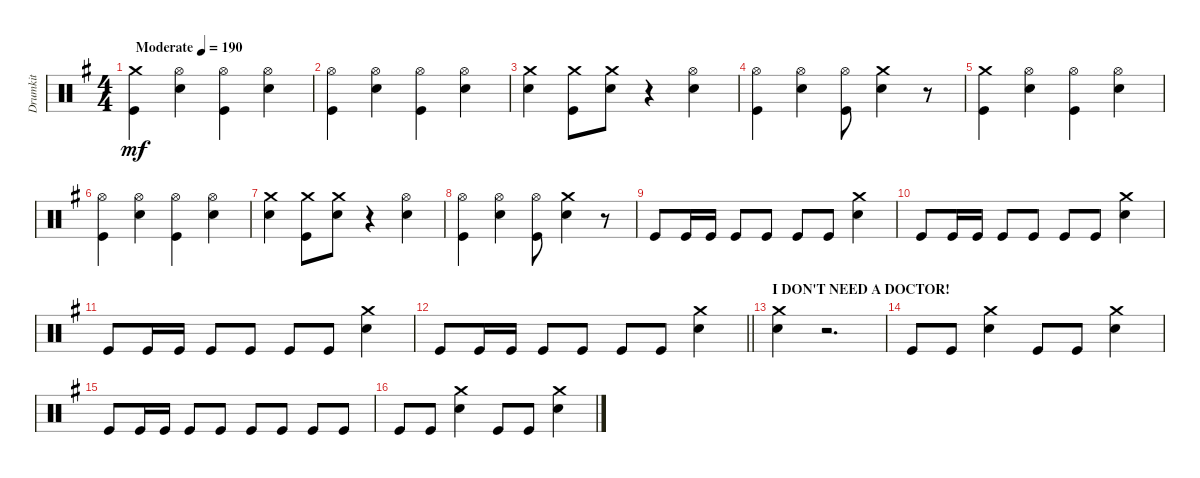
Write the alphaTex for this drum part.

\track ("Drumkit" "Drumkit") {instrument percussion}
\staff {score}
\articulation defaults
\ts (4 4)
\tempo (190 "Moderate")
\clef neutral
\ks eminor
("Kick (hit)" "Crash medium (hit)").4{dy mf} ("Snare (hit) 2" "Hi-Hat (open)").4 ("Kick (hit)" "Hi-Hat (open)").4 ("Snare (hit) 2" "Hi-Hat (open)").4 |
("Kick (hit)" "Hi-Hat (open)").4 ("Snare (hit) 2" "Hi-Hat (open)").4 ("Kick (hit)" "Hi-Hat (open)").4 ("Snare (hit) 2" "Hi-Hat (open)").4 |
("Snare (hit) 2" "Crash medium (hit)").4 ("Kick (hit)" "Crash medium (hit)").8 ("Snare (hit) 2" "Crash medium (hit)").8 r.4 ("Snare (hit) 2" "Hi-Hat (open)").4 |
("Kick (hit)" "Hi-Hat (open)").4 ("Snare (hit) 2" "Hi-Hat (open)").4 ("Kick (hit)" "Hi-Hat (open)").8 ("Snare (hit) 2" "Crash medium (hit)").4 r.8 |
("Kick (hit)" "Crash medium (hit)").4 ("Snare (hit) 2" "Hi-Hat (open)").4 ("Kick (hit)" "Hi-Hat (open)").4 ("Snare (hit) 2" "Hi-Hat (open)").4 |
("Kick (hit)" "Hi-Hat (open)").4 ("Snare (hit) 2" "Hi-Hat (open)").4 ("Kick (hit)" "Hi-Hat (open)").4 ("Snare (hit) 2" "Hi-Hat (open)").4 |
("Snare (hit) 2" "Crash medium (hit)").4 ("Kick (hit)" "Crash medium (hit)").8 ("Snare (hit) 2" "Crash medium (hit)").8 r.4 ("Snare (hit) 2" "Hi-Hat (open)").4 |
("Kick (hit)" "Hi-Hat (open)").4 ("Snare (hit) 2" "Hi-Hat (open)").4 ("Kick (hit)" "Hi-Hat (open)").8 ("Snare (hit) 2" "Crash medium (hit)").4 r.8 |
"Kick (hit)".8 "Kick (hit)".16 "Kick (hit)".16 "Kick (hit)".8 "Kick (hit)".8 "Kick (hit)".8 "Kick (hit)".8 ("Snare (hit) 2" "Crash medium (hit)").4 |
"Kick (hit)".8 "Kick (hit)".16 "Kick (hit)".16 "Kick (hit)".8 "Kick (hit)".8 "Kick (hit)".8 "Kick (hit)".8 ("Snare (hit) 2" "Crash medium (hit)").4 |
"Kick (hit)".8 "Kick (hit)".16 "Kick (hit)".16 "Kick (hit)".8 "Kick (hit)".8 "Kick (hit)".8 "Kick (hit)".8 ("Snare (hit) 2" "Crash medium (hit)").4 |
\barLineRight lightlight "Kick (hit)".8 "Kick (hit)".16 "Kick (hit)".16 "Kick (hit)".8 "Kick (hit)".8 "Kick (hit)".8 "Kick (hit)".8
("Snare (hit) 2" "Crash medium (hit)").4 |
\section ("" "I DON'T NEED A DOCTOR!")
("Snare (hit) 2" "Crash medium (hit)").4 r.2{d} |
"Kick (hit)".8 "Kick (hit)".8 ("Snare (hit) 2" "Crash medium (hit)").4 "Kick (hit)".8 "Kick (hit)".8 ("Snare (hit) 2" "Crash medium (hit)").4 |
"Kick (hit)".8 "Kick (hit)".16 "Kick (hit)".16 "Kick (hit)".8 "Kick (hit)".8 "Kick (hit)".8 "Kick (hit)".8 "Kick (hit)".8 "Kick (hit)".8 |
"Kick (hit)".8 "Kick (hit)".8 ("Snare (hit) 2" "Crash medium (hit)").4 "Kick (hit)".8 "Kick (hit)".8 ("Snare (hit) 2" "Crash medium (hit)").4
